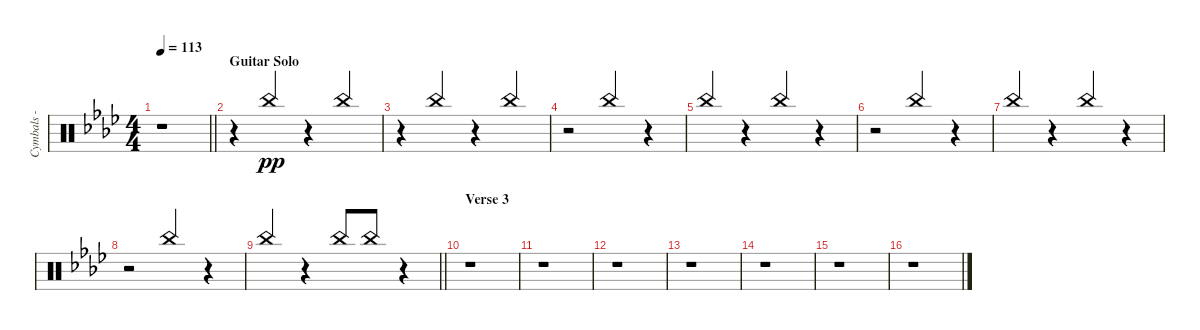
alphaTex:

\track ("Cymbals - china" "Cymbals - ") {instrument percussion}
\staff {score}
\articulation defaults
\ts (4 4)
\tempo 113
\clef neutral
\barLineRight lightlight
\ks fminor
r.1{dy pp} |
\section ("" "Guitar Solo")
r.4 "China (hit)".4{beam Up} r.4 "China (hit)".4{beam Up} |
r.4 "China (hit)".4{beam Up} r.4 "China (hit)".4{beam Up} |
r.2 "China (hit)".4{beam Up} r.4 |
"China (hit)".4{beam Up} r.4 "China (hit)".4{beam Up} r.4 |
r.2 "China (hit)".4{beam Up} r.4 |
"China (hit)".4{beam Up} r.4 "China (hit)".4{beam Up} r.4 |
r.2 "China (hit)".4{beam Up} r.4 |
\barLineRight lightlight "China (hit)".4{beam Up}
r.4 "China (hit)".8{beam Up} "China (hit)".8{beam Up} r.4 |
\section ("" "Verse 3")
r.1 |
r.1 |
r.1 |
r.1 |
r.1 |
r.1 |
r.1
